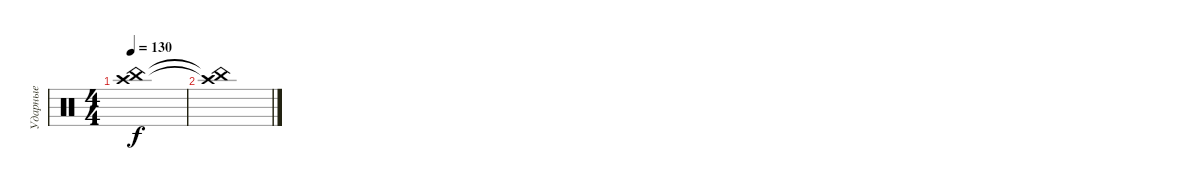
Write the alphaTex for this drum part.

\track ("Ударные" "Ударные") {instrument percussion}
\staff {score}
\articulation defaults
\ts (4 4)
\tempo 130
\clef neutral
\ks c
("China (hit)" "Crash high (hit)").1{dy f} |
("China (hit)"{t} "Crash high (hit)"{t}).1
